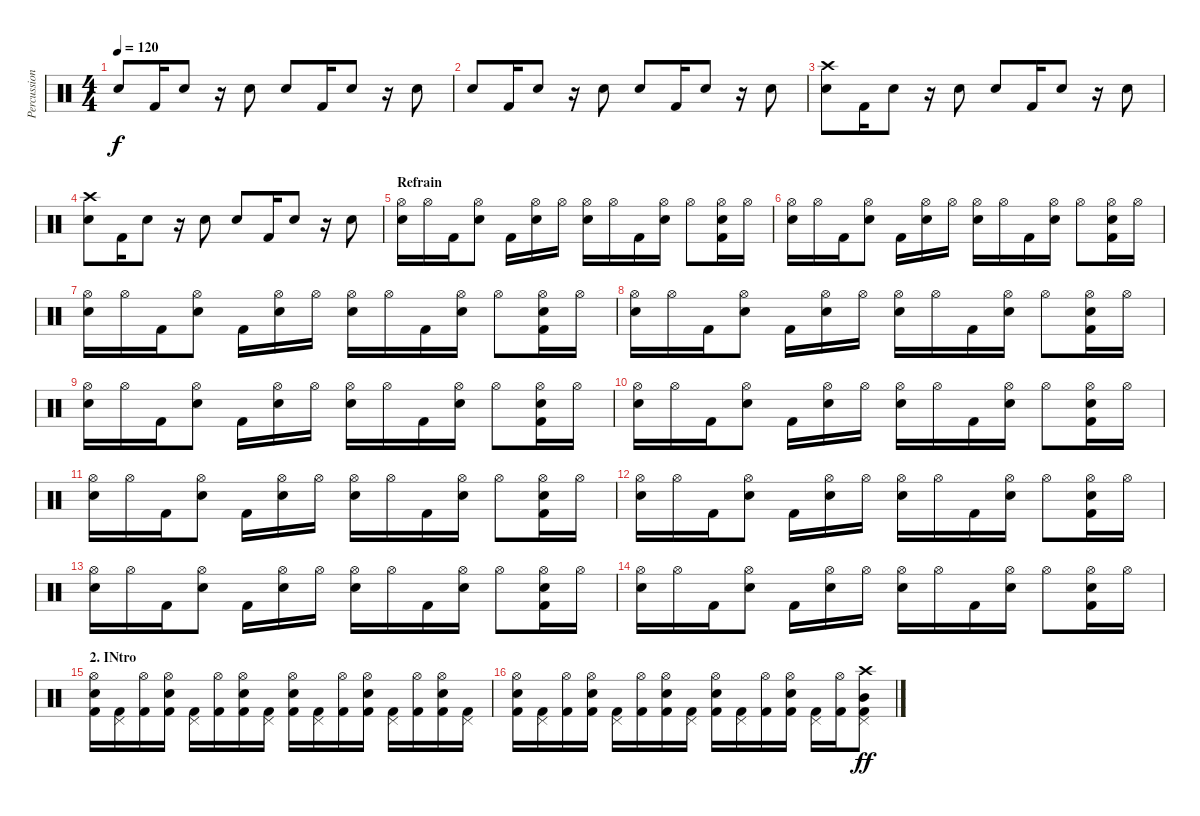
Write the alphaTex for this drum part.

\track ("Percussion" "Percussion") {instrument percussion}
\staff {score}
\articulation defaults
\ts (4 4)
\section ("" "")
\tempo 120
\clef neutral
\ks c "Electric Snare (hit)".8{dy f} "Kick (hit) 2".16 "Electric Snare (hit)".8
r.16 "Electric Snare (hit)".8 "Electric Snare (hit)".8 "Kick (hit) 2".16 "Electric Snare (hit)".8 r.16 "Electric Snare (hit)".8 |
"Electric Snare (hit)".8 "Kick (hit) 2".16 "Electric Snare (hit)".8 r.16 "Electric Snare (hit)".8 "Electric Snare (hit)".8 "Kick (hit) 2".16 "Electric Snare (hit)".8 r.16 "Electric Snare (hit)".8 |
("Crash high (hit)" "Electric Snare (hit)").8 "Kick (hit) 2".16 "Electric Snare (hit)".8 r.16 "Electric Snare (hit)".8 "Electric Snare (hit)".8 "Kick (hit) 2".16 "Electric Snare (hit)".8 r.16 "Electric Snare (hit)".8 |
("Crash high (hit)" "Electric Snare (hit)").8 "Kick (hit) 2".16 "Electric Snare (hit)".8 r.16 "Electric Snare (hit)".8 "Electric Snare (hit)".8 "Kick (hit) 2".16 "Electric Snare (hit)".8 r.16 "Electric Snare (hit)".8 |
\section ("" "Refrain")
("Hi-Hat (open)" "Electric Snare (hit)").16 "Hi-Hat (open)".16 "Kick (hit) 2".16 ("Hi-Hat (open)" "Electric Snare (hit)").8 "Kick (hit) 2".16 ("Hi-Hat (open)" "Electric Snare (hit)").16 "Hi-Hat (open)".16 ("Hi-Hat (open)" "Electric Snare (hit)").16 "Hi-Hat (open)".16 "Kick (hit) 2".16 ("Hi-Hat (open)" "Electric Snare (hit)").16 "Hi-Hat (open)".8 ("Hi-Hat (open)" "Electric Snare (hit)" "Kick (hit) 2").16 "Hi-Hat (open)".16 |
("Hi-Hat (open)" "Electric Snare (hit)").16 "Hi-Hat (open)".16 "Kick (hit) 2".16 ("Hi-Hat (open)" "Electric Snare (hit)").8 "Kick (hit) 2".16 ("Hi-Hat (open)" "Electric Snare (hit)").16 "Hi-Hat (open)".16 ("Hi-Hat (open)" "Electric Snare (hit)").16 "Hi-Hat (open)".16 "Kick (hit) 2".16 ("Hi-Hat (open)" "Electric Snare (hit)").16 "Hi-Hat (open)".8 ("Hi-Hat (open)" "Electric Snare (hit)" "Kick (hit) 2").16 "Hi-Hat (open)".16 |
("Hi-Hat (open)" "Electric Snare (hit)").16 "Hi-Hat (open)".16 "Kick (hit) 2".16 ("Hi-Hat (open)" "Electric Snare (hit)").8 "Kick (hit) 2".16 ("Hi-Hat (open)" "Electric Snare (hit)").16 "Hi-Hat (open)".16 ("Hi-Hat (open)" "Electric Snare (hit)").16 "Hi-Hat (open)".16 "Kick (hit) 2".16 ("Hi-Hat (open)" "Electric Snare (hit)").16 "Hi-Hat (open)".8 ("Hi-Hat (open)" "Electric Snare (hit)" "Kick (hit) 2").16 "Hi-Hat (open)".16 |
("Hi-Hat (open)" "Electric Snare (hit)").16 "Hi-Hat (open)".16 "Kick (hit) 2".16 ("Hi-Hat (open)" "Electric Snare (hit)").8 "Kick (hit) 2".16 ("Hi-Hat (open)" "Electric Snare (hit)").16 "Hi-Hat (open)".16 ("Hi-Hat (open)" "Electric Snare (hit)").16 "Hi-Hat (open)".16 "Kick (hit) 2".16 ("Hi-Hat (open)" "Electric Snare (hit)").16 "Hi-Hat (open)".8 ("Hi-Hat (open)" "Electric Snare (hit)" "Kick (hit) 2").16 "Hi-Hat (open)".16 |
("Hi-Hat (open)" "Electric Snare (hit)").16 "Hi-Hat (open)".16 "Kick (hit) 2".16 ("Hi-Hat (open)" "Electric Snare (hit)").8 "Kick (hit) 2".16 ("Hi-Hat (open)" "Electric Snare (hit)").16 "Hi-Hat (open)".16 ("Hi-Hat (open)" "Electric Snare (hit)").16 "Hi-Hat (open)".16 "Kick (hit) 2".16 ("Hi-Hat (open)" "Electric Snare (hit)").16 "Hi-Hat (open)".8 ("Hi-Hat (open)" "Electric Snare (hit)" "Kick (hit) 2").16 "Hi-Hat (open)".16 |
("Hi-Hat (open)" "Electric Snare (hit)").16 "Hi-Hat (open)".16 "Kick (hit) 2".16 ("Hi-Hat (open)" "Electric Snare (hit)").8 "Kick (hit) 2".16 ("Hi-Hat (open)" "Electric Snare (hit)").16 "Hi-Hat (open)".16 ("Hi-Hat (open)" "Electric Snare (hit)").16 "Hi-Hat (open)".16 "Kick (hit) 2".16 ("Hi-Hat (open)" "Electric Snare (hit)").16 "Hi-Hat (open)".8 ("Hi-Hat (open)" "Electric Snare (hit)" "Kick (hit) 2").16 "Hi-Hat (open)".16 |
("Hi-Hat (open)" "Electric Snare (hit)").16 "Hi-Hat (open)".16 "Kick (hit) 2".16 ("Hi-Hat (open)" "Electric Snare (hit)").8 "Kick (hit) 2".16 ("Hi-Hat (open)" "Electric Snare (hit)").16 "Hi-Hat (open)".16 ("Hi-Hat (open)" "Electric Snare (hit)").16 "Hi-Hat (open)".16 "Kick (hit) 2".16 ("Hi-Hat (open)" "Electric Snare (hit)").16 "Hi-Hat (open)".8 ("Hi-Hat (open)" "Electric Snare (hit)" "Kick (hit) 2").16 "Hi-Hat (open)".16 |
("Hi-Hat (open)" "Electric Snare (hit)").16 "Hi-Hat (open)".16 "Kick (hit) 2".16 ("Hi-Hat (open)" "Electric Snare (hit)").8 "Kick (hit) 2".16 ("Hi-Hat (open)" "Electric Snare (hit)").16 "Hi-Hat (open)".16 ("Hi-Hat (open)" "Electric Snare (hit)").16 "Hi-Hat (open)".16 "Kick (hit) 2".16 ("Hi-Hat (open)" "Electric Snare (hit)").16 "Hi-Hat (open)".8 ("Hi-Hat (open)" "Electric Snare (hit)" "Kick (hit) 2").16 "Hi-Hat (open)".16 |
("Hi-Hat (open)" "Electric Snare (hit)").16 "Hi-Hat (open)".16 "Kick (hit) 2".16 ("Hi-Hat (open)" "Electric Snare (hit)").8 "Kick (hit) 2".16 ("Hi-Hat (open)" "Electric Snare (hit)").16 "Hi-Hat (open)".16 ("Hi-Hat (open)" "Electric Snare (hit)").16 "Hi-Hat (open)".16 "Kick (hit) 2".16 ("Hi-Hat (open)" "Electric Snare (hit)").16 "Hi-Hat (open)".8 ("Hi-Hat (open)" "Electric Snare (hit)" "Kick (hit) 2").16 "Hi-Hat (open)".16 |
("Hi-Hat (open)" "Electric Snare (hit)").16 "Hi-Hat (open)".16 "Kick (hit) 2".16 ("Hi-Hat (open)" "Electric Snare (hit)").8 "Kick (hit) 2".16 ("Hi-Hat (open)" "Electric Snare (hit)").16 "Hi-Hat (open)".16 ("Hi-Hat (open)" "Electric Snare (hit)").16 "Hi-Hat (open)".16 "Kick (hit) 2".16 ("Hi-Hat (open)" "Electric Snare (hit)").16 "Hi-Hat (open)".8 ("Hi-Hat (open)" "Electric Snare (hit)" "Kick (hit) 2").16 "Hi-Hat (open)".16 |
\section ("" "2. INtro")
("Hi-Hat (open)" "Electric Snare (hit)" "Kick (hit) 2").16 ("Pedal Hi-Hat (hit)" "Kick (hit) 2").16 ("Hi-Hat (open)" "Kick (hit) 2").16 ("Hi-Hat (open)" "Electric Snare (hit)" "Kick (hit) 2").16 ("Pedal Hi-Hat (hit)" "Kick (hit) 2").16 ("Hi-Hat (open)" "Kick (hit) 2").16 ("Hi-Hat (open)" "Electric Snare (hit)" "Kick (hit) 2").16 ("Pedal Hi-Hat (hit)" "Kick (hit) 2").16 ("Hi-Hat (open)" "Electric Snare (hit)" "Kick (hit) 2").16 ("Pedal Hi-Hat (hit)" "Kick (hit) 2").16 ("Hi-Hat (open)" "Kick (hit) 2").16 ("Hi-Hat (open)" "Electric Snare (hit)" "Kick (hit) 2").16 ("Pedal Hi-Hat (hit)" "Kick (hit) 2").16 ("Hi-Hat (open)" "Kick (hit) 2").16 ("Hi-Hat (open)" "Electric Snare (hit)" "Kick (hit) 2").16 ("Pedal Hi-Hat (hit)" "Kick (hit) 2").16 |
("Hi-Hat (open)" "Electric Snare (hit)" "Kick (hit) 2").16 ("Pedal Hi-Hat (hit)" "Kick (hit) 2").16 ("Hi-Hat (open)" "Kick (hit) 2").16 ("Hi-Hat (open)" "Electric Snare (hit)" "Kick (hit) 2").16 ("Pedal Hi-Hat (hit)" "Kick (hit) 2").16 ("Hi-Hat (open)" "Kick (hit) 2").16 ("Hi-Hat (open)" "Electric Snare (hit)" "Kick (hit) 2").16 ("Pedal Hi-Hat (hit)" "Kick (hit) 2").16 ("Hi-Hat (open)" "Electric Snare (hit)" "Kick (hit) 2").16 ("Pedal Hi-Hat (hit)" "Kick (hit) 2").16 ("Hi-Hat (open)" "Kick (hit) 2").16 ("Hi-Hat (open)" "Electric Snare (hit)" "Kick (hit) 2").16 ("Pedal Hi-Hat (hit)" "Kick (hit) 2").16 ("Hi-Hat (open)" "Kick (hit) 2").16 ("Crash high (hit)" "Mid Tom (hit)" "Pedal Hi-Hat (hit)" "Kick (hit) 2").8{dy ff}
